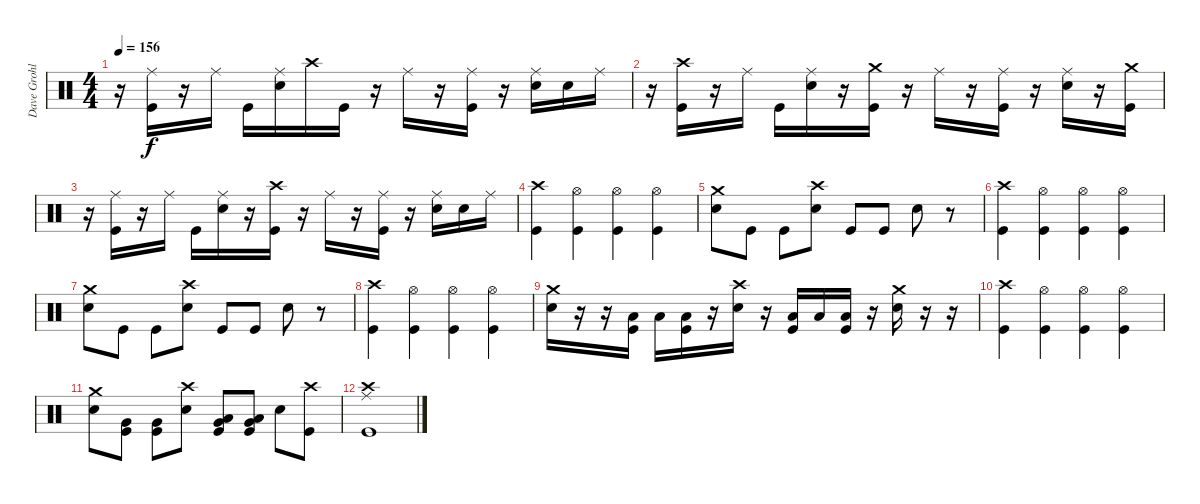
\track ("Dave Grohl - Drums" "Dave Grohl") {instrument percussion}
\staff {score}
\articulation defaults
\ts (4 4)
\tempo 156
\clef neutral
\ks c
r.16{dy f} ("Ride (middle)" "Kick (hit)").16 r.16 "Ride (middle)".16 "Kick (hit)".16 ("Ride (middle)" "Snare (hit) 2").16 "Crash high (hit)".16 "Kick (hit)".16 r.16 "Ride (middle)".16 r.16 ("Ride (middle)" "Kick (hit)").16 r.16 ("Ride (middle)" "Snare (hit) 2").16 "Snare (hit) 2".16 "Ride (middle)".16 |
r.16 ("Crash high (hit)" "Kick (hit)").16 r.16 "Ride (middle)".16 "Kick (hit)".16 ("Ride (middle)" "Snare (hit) 2").16 r.16 ("Crash medium (hit)" "Kick (hit)").16 r.16 "Ride (middle)".16 r.16 ("Ride (middle)" "Kick (hit)").16 r.16 ("Ride (middle)" "Snare (hit) 2").16 r.16 ("Crash medium (hit)" "Kick (hit)").16 |
r.16 ("Ride (middle)" "Kick (hit)").16 r.16 "Ride (middle)".16 "Kick (hit)".16 ("Ride (middle)" "Snare (hit) 2").16 r.16 ("Crash high (hit)" "Kick (hit)").16 r.16 "Ride (middle)".16 r.16 ("Ride (middle)" "Kick (hit)").16 r.16 ("Ride (middle)" "Snare (hit) 2").16 "Snare (hit) 2".16 "Ride (middle)".16 |
("Crash high (hit)" "Kick (hit)").4 ("Hi-Hat (open)" "Kick (hit)").4 ("Hi-Hat (open)" "Kick (hit)").4 ("Hi-Hat (open)" "Kick (hit)").4 |
("Crash medium (hit)" "Snare (hit) 2").8 "Kick (hit)".8 "Kick (hit)".8 ("Crash high (hit)" "Snare (hit) 2").8 "Kick (hit)".8 "Kick (hit)".8 "Snare (hit) 2".8 r.8 |
("Crash high (hit)" "Kick (hit)").4 ("Hi-Hat (open)" "Kick (hit)").4 ("Hi-Hat (open)" "Kick (hit)").4 ("Hi-Hat (open)" "Kick (hit)").4 |
("Crash medium (hit)" "Snare (hit) 2").8 "Kick (hit)".8 "Kick (hit)".8 ("Crash high (hit)" "Snare (hit) 2").8 "Kick (hit)".8 "Kick (hit)".8 "Snare (hit) 2".8 r.8 |
("Crash high (hit)" "Kick (hit)").4 ("Hi-Hat (open)" "Kick (hit)").4 ("Hi-Hat (open)" "Kick (hit)").4 ("Hi-Hat (open)" "Kick (hit)").4 |
("Crash medium (hit)" "Snare (hit) 2").16 r.16 r.16{beam merge} ("Low Tom (hit)" "Kick (hit)").16 "Low Tom (hit)".16 ("Low Tom (hit)" "Kick (hit)").16 r.16 ("Crash high (hit)" "Snare (hit) 2").16 r.16{beam merge} ("Low Tom (hit)" "Kick (hit)").16 "Low Tom (hit)".16 ("Low Tom (hit)" "Kick (hit)").16 r.16 ("Crash medium (hit)" "Snare (hit) 2").16 r.16 r.16 |
("Crash high (hit)" "Kick (hit)").4 ("Hi-Hat (open)" "Kick (hit)").4 ("Hi-Hat (open)" "Kick (hit)").4 ("Hi-Hat (open)" "Kick (hit)").4 |
("Crash medium (hit)" "Snare (hit) 2").8 ("Very Low Tom (hit)" "Kick (hit)").8 ("Very Low Tom (hit)" "Kick (hit)").8 ("Crash high (hit)" "Snare (hit) 2").8 ("Low Tom (hit)" "Very Low Tom (hit)" "Kick (hit)").8 ("Low Tom (hit)" "Very Low Tom (hit)" "Kick (hit)").8 "Snare (hit) 2".8 ("Crash high (hit)" "Kick (hit)").8 |
("Crash high (hit)" "Ride (middle)" "Kick (hit)").1
